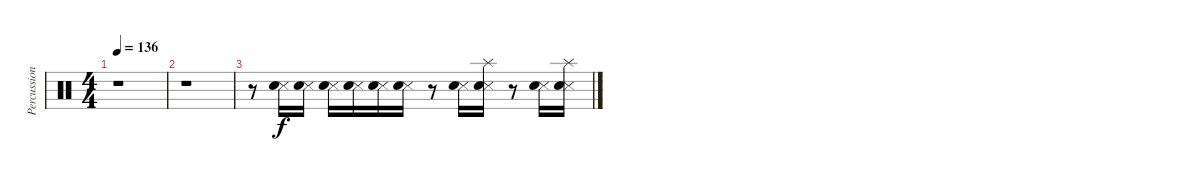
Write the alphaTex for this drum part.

\track ("Percussions" "Percussion") {instrument percussion}
\staff {score}
\articulation defaults
\ts (4 4)
\tempo 136
\clef neutral
\ks c
r.1{dy f} |
r.1 |
r.8 ("Snare (side stick) 3" "Electric Snare (hit)").16 ("Snare (side stick) 3" "Electric Snare (hit)").16 ("Snare (side stick) 3" "Electric Snare (hit)").16 ("Snare (side stick) 3" "Electric Snare (hit)").16 ("Snare (side stick) 3" "Electric Snare (hit)").16 ("Snare (side stick) 3" "Electric Snare (hit)").16 r.8 ("Snare (side stick) 3" "Electric Snare (hit)").16 ("Snare (side stick) 3" "Electric Snare (hit)" "Splash (hit)").16 r.8 ("Snare (side stick) 3" "Electric Snare (hit)").16 ("Snare (side stick) 3" "Electric Snare (hit)" "Splash (hit)").16
